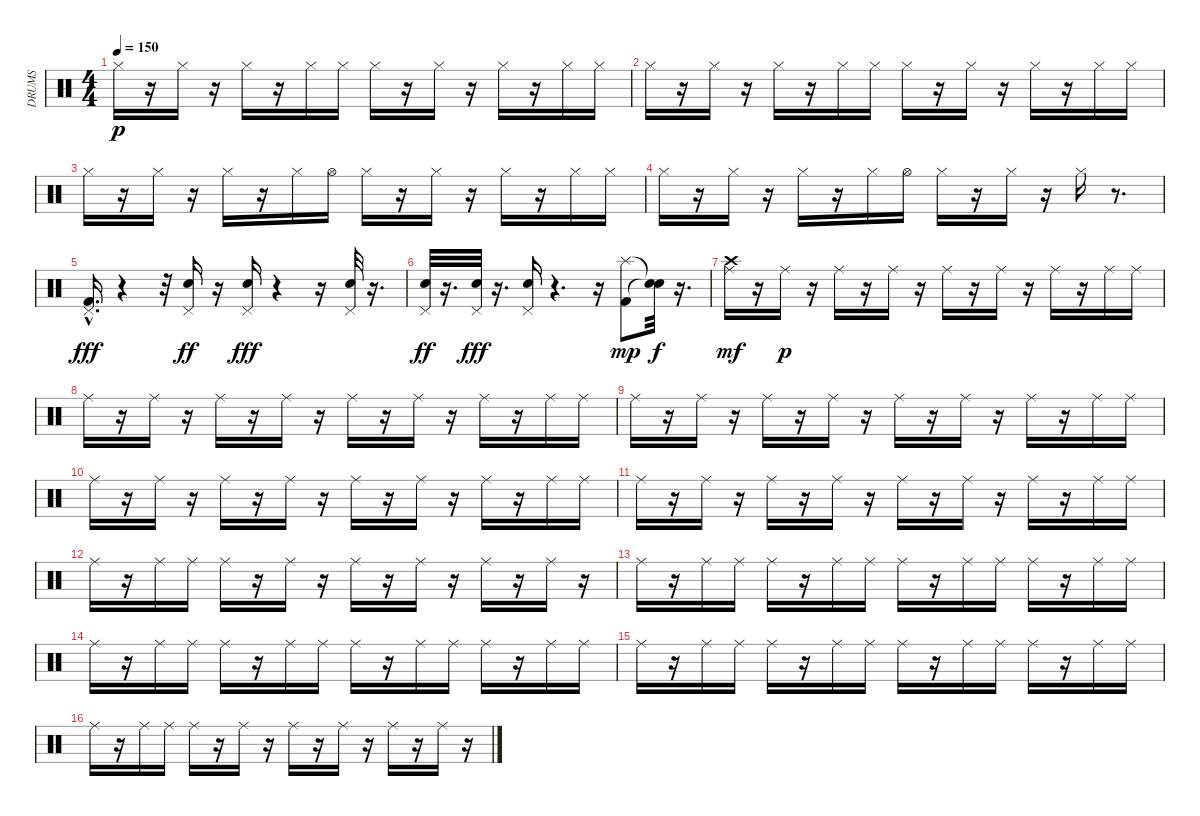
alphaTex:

\track ("DRUMS" "DRUMS") {instrument percussion}
\staff {score}
\articulation defaults
\ts (4 4)
\tempo 150
\clef neutral
\ks c "Hi-Hat (closed)".16{dy p}
r.16 "Hi-Hat (closed)".16 r.16 "Hi-Hat (closed)".16 r.16 "Hi-Hat (closed)".16 "Hi-Hat (closed)".16 "Hi-Hat (closed)".16 r.16 "Hi-Hat (closed)".16 r.16 "Hi-Hat (closed)".16 r.16 "Hi-Hat (closed)".16 "Hi-Hat (closed)".16 |
"Hi-Hat (closed)".16 r.16 "Hi-Hat (closed)".16 r.16 "Hi-Hat (closed)".16 r.16 "Hi-Hat (closed)".16 "Hi-Hat (closed)".16 "Hi-Hat (closed)".16 r.16 "Hi-Hat (closed)".16 r.16 "Hi-Hat (closed)".16 r.16 "Hi-Hat (closed)".16 "Hi-Hat (closed)".16 |
"Hi-Hat (closed)".16 r.16 "Hi-Hat (closed)".16 r.16 "Hi-Hat (closed)".16 r.16 "Hi-Hat (closed)".16 "Hi-Hat (open)".16 "Hi-Hat (closed)".16 r.16 "Hi-Hat (closed)".16 r.16 "Hi-Hat (closed)".16 r.16 "Hi-Hat (closed)".16 "Hi-Hat (closed)".16 |
"Hi-Hat (closed)".16 r.16 "Hi-Hat (closed)".16 r.16 "Hi-Hat (closed)".16 r.16 "Hi-Hat (closed)".16 "Hi-Hat (open)".16 "Hi-Hat (closed)".16 r.16 "Hi-Hat (closed)".16 r.16 "Hi-Hat (closed)".16 r.8{d} |
("Kick (hit) 2"{hac} "Pedal Hi-Hat (hit)").16{d dy fff} r.4 r.32 ("Electric Snare (hit)" "Pedal Hi-Hat (hit)").16{dy ff} r.16 ("Electric Snare (hit)" "Pedal Hi-Hat (hit)").16{dy fff} r.4 r.16 ("Electric Snare (hit)" "Pedal Hi-Hat (hit)").32 r.16{d} |
("Electric Snare (hit)" "Pedal Hi-Hat (hit)").32{dy ff} r.16{d} ("Electric Snare (hit)" "Pedal Hi-Hat (hit)").32{dy fff} r.16{d} ("Electric Snare (hit)" "Pedal Hi-Hat (hit)").16 r.4{d} r.16 ("Kick (hit) 2" "Splash (hit)").8{dy mp} ("Snare (hit)"{t} "Snare (hit)"{t}).32{dy f} r.16{d} |
("Ride (middle)" "Crash high (hit)").16{dy mf} r.16 "Ride (middle)".16{dy p} r.16 "Ride (middle)".16 r.16 "Ride (middle)".16 r.16 "Ride (middle)".16 r.16 "Ride (middle)".16 r.16 "Ride (middle)".16 r.16 "Ride (middle)".16 "Ride (middle)".16 |
"Ride (middle)".16 r.16 "Ride (middle)".16 r.16 "Ride (middle)".16 r.16 "Ride (middle)".16 r.16 "Ride (middle)".16 r.16 "Ride (middle)".16 r.16 "Ride (middle)".16 r.16 "Ride (middle)".16 "Ride (middle)".16 |
"Ride (middle)".16 r.16 "Ride (middle)".16 r.16 "Ride (middle)".16 r.16 "Ride (middle)".16 r.16 "Ride (middle)".16 r.16 "Ride (middle)".16 r.16 "Ride (middle)".16 r.16 "Ride (middle)".16 "Ride (middle)".16 |
"Ride (middle)".16 r.16 "Ride (middle)".16 r.16 "Ride (middle)".16 r.16 "Ride (middle)".16 r.16 "Ride (middle)".16 r.16 "Ride (middle)".16 r.16 "Ride (middle)".16 r.16 "Ride (middle)".16 "Ride (middle)".16 |
"Ride (middle)".16 r.16 "Ride (middle)".16 r.16 "Ride (middle)".16 r.16 "Ride (middle)".16 r.16 "Ride (middle)".16 r.16 "Ride (middle)".16 r.16 "Ride (middle)".16 r.16 "Ride (middle)".16 "Ride (middle)".16 |
"Ride (middle)".16 r.16 "Ride (middle)".16 "Ride (middle)".16 "Ride (middle)".16 r.16 "Ride (middle)".16 r.16 "Ride (middle)".16 r.16 "Ride (middle)".16 r.16 "Ride (middle)".16 r.16 "Ride (middle)".16 r.16 |
"Ride (middle)".16 r.16 "Ride (middle)".16 "Ride (middle)".16 "Ride (middle)".16 r.16 "Ride (middle)".16 "Ride (middle)".16 "Ride (middle)".16 r.16 "Ride (middle)".16 "Ride (middle)".16 "Ride (middle)".16 r.16 "Ride (middle)".16 "Ride (middle)".16 |
"Ride (middle)".16 r.16 "Ride (middle)".16 "Ride (middle)".16 "Ride (middle)".16 r.16 "Ride (middle)".16 "Ride (middle)".16 "Ride (middle)".16 r.16 "Ride (middle)".16 "Ride (middle)".16 "Ride (middle)".16 r.16 "Ride (middle)".16 "Ride (middle)".16 |
"Ride (middle)".16 r.16 "Ride (middle)".16 "Ride (middle)".16 "Ride (middle)".16 r.16 "Ride (middle)".16 "Ride (middle)".16 "Ride (middle)".16 r.16 "Ride (middle)".16 "Ride (middle)".16 "Ride (middle)".16 r.16 "Ride (middle)".16 "Ride (middle)".16 |
"Ride (middle)".16 r.16 "Ride (middle)".16 "Ride (middle)".16 "Ride (middle)".16 r.16 "Ride (middle)".16 r.16 "Ride (middle)".16 r.16 "Ride (middle)".16 r.16 "Ride (middle)".16 r.16 "Ride (middle)".16 r.16
